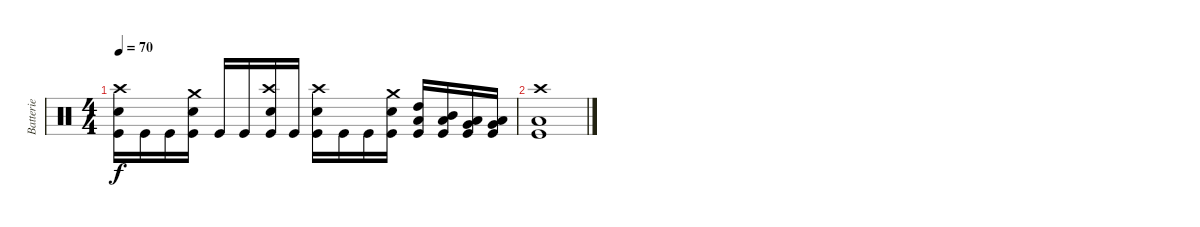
\track ("Batterie" "Batterie") {instrument percussion}
\staff {score}
\articulation defaults
\ts (4 4)
\tempo 70
\clef neutral
\ks c
("Kick (hit)" "Crash high (hit)" "Snare (hit) 2").16{dy f} "Kick (hit)".16 "Kick (hit)".16 ("Snare (hit) 2" "Kick (hit)" "Crash medium (hit)").16 "Kick (hit)".16 "Kick (hit)".16 ("Kick (hit)" "Crash high (hit)" "Snare (hit) 2").16 "Kick (hit)".16 ("Kick (hit)" "Crash high (hit)" "Snare (hit) 2").16 "Kick (hit)".16 "Kick (hit)".16 ("Snare (hit) 2" "Kick (hit)" "Crash medium (hit)").16 ("Low Floor Tom (hit)" "Kick (hit)" "High Tom (hit)").16 ("Kick (hit)" "Mid Tom (hit)" "Low Floor Tom (hit)").16 ("Kick (hit)" "Very Low Tom (hit)" "Low Tom (hit)").16 ("Kick (hit)" "Low Floor Tom (hit)" "Very Low Tom (hit)").16 |
("Kick (hit)" "Crash high (hit)" "Low Floor Tom (hit)").1
